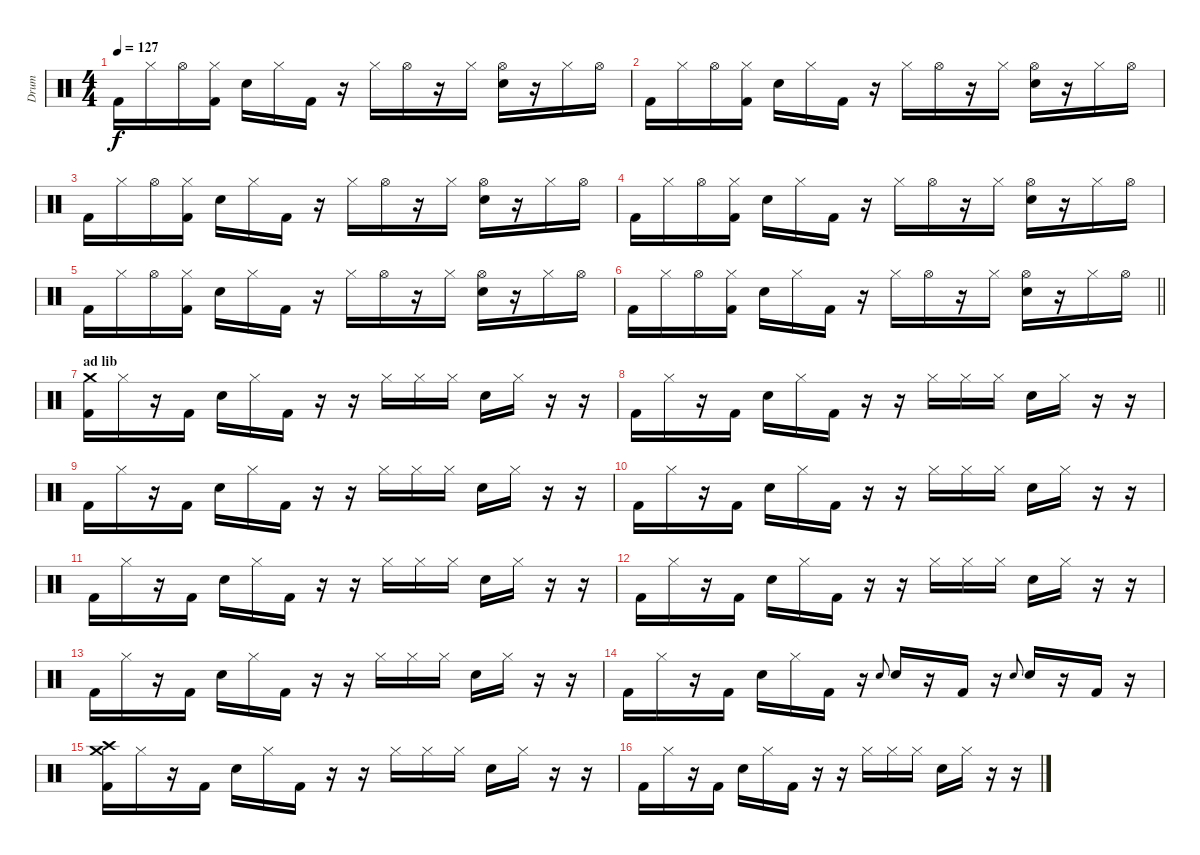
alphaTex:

\track ("Drum" "Drum") {instrument percussion}
\staff {score}
\articulation defaults
\ts (4 4)
\tempo 127
\clef neutral
\ks c "Kick (hit) 2".16{dy f} "Hi-Hat (closed)".16 "Hi-Hat (open)".16
("Hi-Hat (closed)" "Kick (hit) 2").16 "Electric Snare (hit)".16 "Hi-Hat (closed)".16 "Kick (hit) 2".16 r.16 "Hi-Hat (closed)".16 "Hi-Hat (open)".16 r.16 "Hi-Hat (closed)".16 ("Hi-Hat (open)" "Electric Snare (hit)").16 r.16 "Hi-Hat (closed)".16 "Hi-Hat (open)".16 |
"Kick (hit) 2".16 "Hi-Hat (closed)".16 "Hi-Hat (open)".16 ("Hi-Hat (closed)" "Kick (hit) 2").16 "Electric Snare (hit)".16 "Hi-Hat (closed)".16 "Kick (hit) 2".16 r.16 "Hi-Hat (closed)".16 "Hi-Hat (open)".16 r.16 "Hi-Hat (closed)".16 ("Hi-Hat (open)" "Electric Snare (hit)").16 r.16 "Hi-Hat (closed)".16 "Hi-Hat (open)".16 |
"Kick (hit) 2".16 "Hi-Hat (closed)".16 "Hi-Hat (open)".16 ("Hi-Hat (closed)" "Kick (hit) 2").16 "Electric Snare (hit)".16 "Hi-Hat (closed)".16 "Kick (hit) 2".16 r.16 "Hi-Hat (closed)".16 "Hi-Hat (open)".16 r.16 "Hi-Hat (closed)".16 ("Hi-Hat (open)" "Electric Snare (hit)").16 r.16 "Hi-Hat (closed)".16 "Hi-Hat (open)".16 |
"Kick (hit) 2".16 "Hi-Hat (closed)".16 "Hi-Hat (open)".16 ("Hi-Hat (closed)" "Kick (hit) 2").16 "Electric Snare (hit)".16 "Hi-Hat (closed)".16 "Kick (hit) 2".16 r.16 "Hi-Hat (closed)".16 "Hi-Hat (open)".16 r.16 "Hi-Hat (closed)".16 ("Hi-Hat (open)" "Electric Snare (hit)").16 r.16 "Hi-Hat (closed)".16 "Hi-Hat (open)".16 |
"Kick (hit) 2".16 "Hi-Hat (closed)".16 "Hi-Hat (open)".16 ("Hi-Hat (closed)" "Kick (hit) 2").16 "Electric Snare (hit)".16 "Hi-Hat (closed)".16 "Kick (hit) 2".16 r.16 "Hi-Hat (closed)".16 "Hi-Hat (open)".16 r.16 "Hi-Hat (closed)".16 ("Hi-Hat (open)" "Electric Snare (hit)").16 r.16 "Hi-Hat (closed)".16 "Hi-Hat (open)".16 |
\barLineRight lightlight "Kick (hit) 2".16 "Hi-Hat (closed)".16 "Hi-Hat (open)".16
("Hi-Hat (closed)" "Kick (hit) 2").16 "Electric Snare (hit)".16 "Hi-Hat (closed)".16 "Kick (hit) 2".16 r.16 "Hi-Hat (closed)".16 "Hi-Hat (open)".16 r.16 "Hi-Hat (closed)".16 ("Hi-Hat (open)" "Electric Snare (hit)").16 r.16 "Hi-Hat (closed)".16 "Hi-Hat (open)".16 |
\section ("" "ad lib")
("Crash medium (hit)" "Kick (hit) 2").16 "Hi-Hat (closed)".16 r.16 "Kick (hit) 2".16 "Electric Snare (hit)".16 "Hi-Hat (closed)".16 "Kick (hit) 2".16 r.16 r.16 "Hi-Hat (closed)".16 "Hi-Hat (closed)".16 "Hi-Hat (closed)".16 "Electric Snare (hit)".16 "Hi-Hat (closed)".16 r.16 r.16 |
"Kick (hit) 2".16 "Hi-Hat (closed)".16 r.16 "Kick (hit) 2".16 "Electric Snare (hit)".16 "Hi-Hat (closed)".16 "Kick (hit) 2".16 r.16 r.16 "Hi-Hat (closed)".16 "Hi-Hat (closed)".16 "Hi-Hat (closed)".16 "Electric Snare (hit)".16 "Hi-Hat (closed)".16 r.16 r.16 |
"Kick (hit) 2".16 "Hi-Hat (closed)".16 r.16 "Kick (hit) 2".16 "Electric Snare (hit)".16 "Hi-Hat (closed)".16 "Kick (hit) 2".16 r.16 r.16 "Hi-Hat (closed)".16 "Hi-Hat (closed)".16 "Hi-Hat (closed)".16 "Electric Snare (hit)".16 "Hi-Hat (closed)".16 r.16 r.16 |
"Kick (hit) 2".16 "Hi-Hat (closed)".16 r.16 "Kick (hit) 2".16 "Electric Snare (hit)".16 "Hi-Hat (closed)".16 "Kick (hit) 2".16 r.16 r.16 "Hi-Hat (closed)".16 "Hi-Hat (closed)".16 "Hi-Hat (closed)".16 "Electric Snare (hit)".16 "Hi-Hat (closed)".16 r.16 r.16 |
"Kick (hit) 2".16 "Hi-Hat (closed)".16 r.16 "Kick (hit) 2".16 "Electric Snare (hit)".16 "Hi-Hat (closed)".16 "Kick (hit) 2".16 r.16 r.16 "Hi-Hat (closed)".16 "Hi-Hat (closed)".16 "Hi-Hat (closed)".16 "Electric Snare (hit)".16 "Hi-Hat (closed)".16 r.16 r.16 |
"Kick (hit) 2".16 "Hi-Hat (closed)".16 r.16 "Kick (hit) 2".16 "Electric Snare (hit)".16 "Hi-Hat (closed)".16 "Kick (hit) 2".16 r.16 r.16 "Hi-Hat (closed)".16 "Hi-Hat (closed)".16 "Hi-Hat (closed)".16 "Electric Snare (hit)".16 "Hi-Hat (closed)".16 r.16 r.16 |
"Kick (hit) 2".16 "Hi-Hat (closed)".16 r.16 "Kick (hit) 2".16 "Electric Snare (hit)".16 "Hi-Hat (closed)".16 "Kick (hit) 2".16 r.16 r.16 "Hi-Hat (closed)".16 "Hi-Hat (closed)".16 "Hi-Hat (closed)".16 "Electric Snare (hit)".16 "Hi-Hat (closed)".16 r.16 r.16 |
"Kick (hit) 2".16 "Hi-Hat (closed)".16 r.16 "Kick (hit) 2".16 "Electric Snare (hit)".16 "Hi-Hat (closed)".16 "Kick (hit) 2".16 r.16 "Electric Snare (hit)".8{gr onbeat} "Electric Snare (hit)".16 r.16 "Kick (hit) 2".16 r.16 "Electric Snare (hit)".8{gr onbeat} "Electric Snare (hit)".16 r.16 "Kick (hit) 2".16 r.16 |
("Crash high (hit)" "Crash medium (hit)" "Kick (hit) 2").16 "Hi-Hat (closed)".16 r.16 "Kick (hit) 2".16 "Electric Snare (hit)".16 "Hi-Hat (closed)".16 "Kick (hit) 2".16 r.16 r.16 "Hi-Hat (closed)".16 "Hi-Hat (closed)".16 "Hi-Hat (closed)".16 "Electric Snare (hit)".16 "Hi-Hat (closed)".16 r.16 r.16 |
"Kick (hit) 2".16 "Hi-Hat (closed)".16 r.16 "Kick (hit) 2".16 "Electric Snare (hit)".16 "Hi-Hat (closed)".16 "Kick (hit) 2".16 r.16 r.16 "Hi-Hat (closed)".16 "Hi-Hat (closed)".16 "Hi-Hat (closed)".16 "Electric Snare (hit)".16 "Hi-Hat (closed)".16 r.16 r.16
